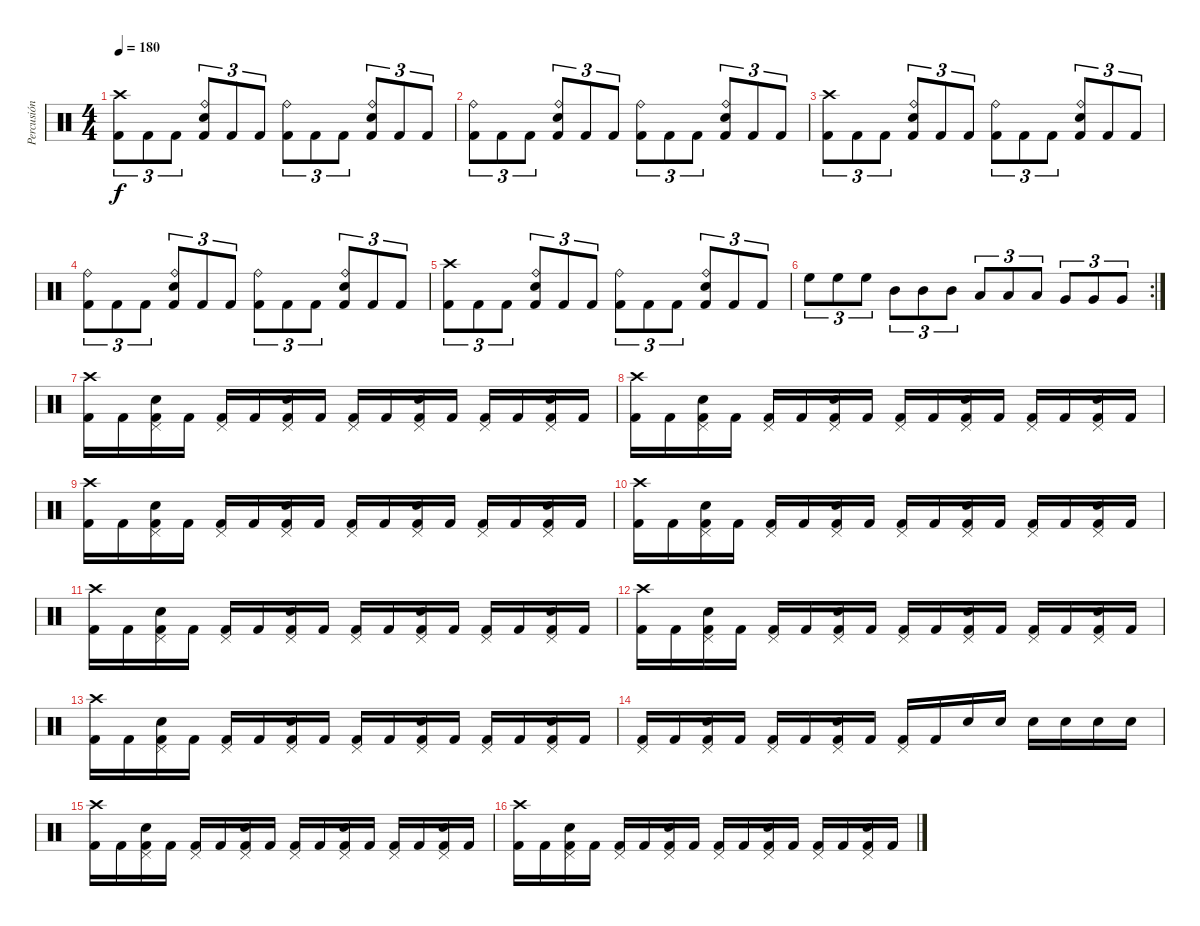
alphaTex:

\track ("Percusión" "Percusión") {instrument percussion}
\staff {score}
\articulation defaults
\ts (4 4)
\tempo 180
\clef neutral
\ks c
("Crash high (hit)" "Kick (hit) 2").8{tu (3 2) dy f} "Kick (hit) 2".8{tu (3 2)} "Kick (hit) 2".8{tu (3 2)} ("Ride (bell)" "Kick (hit) 2" "Electric Snare (hit)").8{tu (3 2)} "Kick (hit) 2".8{tu (3 2)} "Kick (hit) 2".8{tu (3 2)} ("Ride (bell)" "Kick (hit) 2").8{tu (3 2)} "Kick (hit) 2".8{tu (3 2)} "Kick (hit) 2".8{tu (3 2)} ("Ride (bell)" "Kick (hit) 2" "Electric Snare (hit)").8{tu (3 2)} "Kick (hit) 2".8{tu (3 2)} "Kick (hit) 2".8{tu (3 2)} |
("Ride (bell)" "Kick (hit) 2").8{tu (3 2)} "Kick (hit) 2".8{tu (3 2)} "Kick (hit) 2".8{tu (3 2)} ("Ride (bell)" "Kick (hit) 2" "Electric Snare (hit)").8{tu (3 2)} "Kick (hit) 2".8{tu (3 2)} "Kick (hit) 2".8{tu (3 2)} ("Ride (bell)" "Kick (hit) 2").8{tu (3 2)} "Kick (hit) 2".8{tu (3 2)} "Kick (hit) 2".8{tu (3 2)} ("Ride (bell)" "Kick (hit) 2" "Electric Snare (hit)").8{tu (3 2)} "Kick (hit) 2".8{tu (3 2)} "Kick (hit) 2".8{tu (3 2)} |
("Crash high (hit)" "Kick (hit) 2").8{tu (3 2)} "Kick (hit) 2".8{tu (3 2)} "Kick (hit) 2".8{tu (3 2)} ("Ride (bell)" "Kick (hit) 2" "Electric Snare (hit)").8{tu (3 2)} "Kick (hit) 2".8{tu (3 2)} "Kick (hit) 2".8{tu (3 2)} ("Ride (bell)" "Kick (hit) 2").8{tu (3 2)} "Kick (hit) 2".8{tu (3 2)} "Kick (hit) 2".8{tu (3 2)} ("Ride (bell)" "Kick (hit) 2" "Electric Snare (hit)").8{tu (3 2)} "Kick (hit) 2".8{tu (3 2)} "Kick (hit) 2".8{tu (3 2)} |
("Ride (bell)" "Kick (hit) 2").8{tu (3 2)} "Kick (hit) 2".8{tu (3 2)} "Kick (hit) 2".8{tu (3 2)} ("Ride (bell)" "Kick (hit) 2" "Electric Snare (hit)").8{tu (3 2)} "Kick (hit) 2".8{tu (3 2)} "Kick (hit) 2".8{tu (3 2)} ("Ride (bell)" "Kick (hit) 2").8{tu (3 2)} "Kick (hit) 2".8{tu (3 2)} "Kick (hit) 2".8{tu (3 2)} ("Ride (bell)" "Kick (hit) 2" "Electric Snare (hit)").8{tu (3 2)} "Kick (hit) 2".8{tu (3 2)} "Kick (hit) 2".8{tu (3 2)} |
("Crash high (hit)" "Kick (hit) 2").8{tu (3 2)} "Kick (hit) 2".8{tu (3 2)} "Kick (hit) 2".8{tu (3 2)} ("Ride (bell)" "Kick (hit) 2" "Electric Snare (hit)").8{tu (3 2)} "Kick (hit) 2".8{tu (3 2)} "Kick (hit) 2".8{tu (3 2)} ("Ride (bell)" "Kick (hit) 2").8{tu (3 2)} "Kick (hit) 2".8{tu (3 2)} "Kick (hit) 2".8{tu (3 2)} ("Ride (bell)" "Kick (hit) 2" "Electric Snare (hit)").8{tu (3 2)} "Kick (hit) 2".8{tu (3 2)} "Kick (hit) 2".8{tu (3 2)} |
\rc 2 "High Floor Tom (hit)".8{tu (3 2)} "High Floor Tom (hit)".8{tu (3 2)} "High Floor Tom (hit)".8{tu (3 2)} "Mid Tom (hit)".8{tu (3 2)} "Mid Tom (hit)".8{tu (3 2)} "Mid Tom (hit)".8{tu (3 2)} "Low Tom (hit)".8{tu (3 2)} "Low Tom (hit)".8{tu (3 2)} "Low Tom (hit)".8{tu (3 2)} "Very Low Tom (hit)".8{tu (3 2)} "Very Low Tom (hit)".8{tu (3 2)} "Very Low Tom (hit)".8{tu (3 2)}
|
("Crash high (hit)" "Kick (hit) 2").16 "Kick (hit) 2".16 ("Pedal Hi-Hat (hit)" "Kick (hit) 2" "Electric Snare (hit)").16 "Kick (hit) 2".16 ("Pedal Hi-Hat (hit)" "Kick (hit) 2").16 "Kick (hit) 2".16 ("Pedal Hi-Hat (hit)" "Kick (hit) 2" "Electric Snare (hit)").16 "Kick (hit) 2".16 ("Pedal Hi-Hat (hit)" "Kick (hit) 2").16 "Kick (hit) 2".16 ("Pedal Hi-Hat (hit)" "Kick (hit) 2" "Electric Snare (hit)").16 "Kick (hit) 2".16 ("Pedal Hi-Hat (hit)" "Kick (hit) 2").16 "Kick (hit) 2".16 ("Pedal Hi-Hat (hit)" "Kick (hit) 2" "Electric Snare (hit)").16 "Kick (hit) 2".16 |
("Crash high (hit)" "Kick (hit) 2").16 "Kick (hit) 2".16 ("Pedal Hi-Hat (hit)" "Kick (hit) 2" "Electric Snare (hit)").16 "Kick (hit) 2".16 ("Pedal Hi-Hat (hit)" "Kick (hit) 2").16 "Kick (hit) 2".16 ("Pedal Hi-Hat (hit)" "Kick (hit) 2" "Electric Snare (hit)").16 "Kick (hit) 2".16 ("Pedal Hi-Hat (hit)" "Kick (hit) 2").16 "Kick (hit) 2".16 ("Pedal Hi-Hat (hit)" "Kick (hit) 2" "Electric Snare (hit)").16 "Kick (hit) 2".16 ("Pedal Hi-Hat (hit)" "Kick (hit) 2").16 "Kick (hit) 2".16 ("Pedal Hi-Hat (hit)" "Kick (hit) 2" "Electric Snare (hit)").16 "Kick (hit) 2".16 |
("Crash high (hit)" "Kick (hit) 2").16 "Kick (hit) 2".16 ("Pedal Hi-Hat (hit)" "Kick (hit) 2" "Electric Snare (hit)").16 "Kick (hit) 2".16 ("Pedal Hi-Hat (hit)" "Kick (hit) 2").16 "Kick (hit) 2".16 ("Pedal Hi-Hat (hit)" "Kick (hit) 2" "Electric Snare (hit)").16 "Kick (hit) 2".16 ("Pedal Hi-Hat (hit)" "Kick (hit) 2").16 "Kick (hit) 2".16 ("Pedal Hi-Hat (hit)" "Kick (hit) 2" "Electric Snare (hit)").16 "Kick (hit) 2".16 ("Pedal Hi-Hat (hit)" "Kick (hit) 2").16 "Kick (hit) 2".16 ("Pedal Hi-Hat (hit)" "Kick (hit) 2" "Electric Snare (hit)").16 "Kick (hit) 2".16 |
("Crash high (hit)" "Kick (hit) 2").16 "Kick (hit) 2".16 ("Pedal Hi-Hat (hit)" "Kick (hit) 2" "Electric Snare (hit)").16 "Kick (hit) 2".16 ("Pedal Hi-Hat (hit)" "Kick (hit) 2").16 "Kick (hit) 2".16 ("Pedal Hi-Hat (hit)" "Kick (hit) 2" "Electric Snare (hit)").16 "Kick (hit) 2".16 ("Pedal Hi-Hat (hit)" "Kick (hit) 2").16 "Kick (hit) 2".16 ("Pedal Hi-Hat (hit)" "Kick (hit) 2" "Electric Snare (hit)").16 "Kick (hit) 2".16 ("Pedal Hi-Hat (hit)" "Kick (hit) 2").16 "Kick (hit) 2".16 ("Pedal Hi-Hat (hit)" "Kick (hit) 2" "Electric Snare (hit)").16 "Kick (hit) 2".16 |
("Crash high (hit)" "Kick (hit) 2").16 "Kick (hit) 2".16 ("Pedal Hi-Hat (hit)" "Kick (hit) 2" "Electric Snare (hit)").16 "Kick (hit) 2".16 ("Pedal Hi-Hat (hit)" "Kick (hit) 2").16 "Kick (hit) 2".16 ("Pedal Hi-Hat (hit)" "Kick (hit) 2" "Electric Snare (hit)").16 "Kick (hit) 2".16 ("Pedal Hi-Hat (hit)" "Kick (hit) 2").16 "Kick (hit) 2".16 ("Pedal Hi-Hat (hit)" "Kick (hit) 2" "Electric Snare (hit)").16 "Kick (hit) 2".16 ("Pedal Hi-Hat (hit)" "Kick (hit) 2").16 "Kick (hit) 2".16 ("Pedal Hi-Hat (hit)" "Kick (hit) 2" "Electric Snare (hit)").16 "Kick (hit) 2".16 |
("Crash high (hit)" "Kick (hit) 2").16 "Kick (hit) 2".16 ("Pedal Hi-Hat (hit)" "Kick (hit) 2" "Electric Snare (hit)").16 "Kick (hit) 2".16 ("Pedal Hi-Hat (hit)" "Kick (hit) 2").16 "Kick (hit) 2".16 ("Pedal Hi-Hat (hit)" "Kick (hit) 2" "Electric Snare (hit)").16 "Kick (hit) 2".16 ("Pedal Hi-Hat (hit)" "Kick (hit) 2").16 "Kick (hit) 2".16 ("Pedal Hi-Hat (hit)" "Kick (hit) 2" "Electric Snare (hit)").16 "Kick (hit) 2".16 ("Pedal Hi-Hat (hit)" "Kick (hit) 2").16 "Kick (hit) 2".16 ("Pedal Hi-Hat (hit)" "Kick (hit) 2" "Electric Snare (hit)").16 "Kick (hit) 2".16 |
("Crash high (hit)" "Kick (hit) 2").16 "Kick (hit) 2".16 ("Pedal Hi-Hat (hit)" "Kick (hit) 2" "Electric Snare (hit)").16 "Kick (hit) 2".16 ("Pedal Hi-Hat (hit)" "Kick (hit) 2").16 "Kick (hit) 2".16 ("Pedal Hi-Hat (hit)" "Kick (hit) 2" "Electric Snare (hit)").16 "Kick (hit) 2".16 ("Pedal Hi-Hat (hit)" "Kick (hit) 2").16 "Kick (hit) 2".16 ("Pedal Hi-Hat (hit)" "Kick (hit) 2" "Electric Snare (hit)").16 "Kick (hit) 2".16 ("Pedal Hi-Hat (hit)" "Kick (hit) 2").16 "Kick (hit) 2".16 ("Pedal Hi-Hat (hit)" "Kick (hit) 2" "Electric Snare (hit)").16 "Kick (hit) 2".16 |
("Pedal Hi-Hat (hit)" "Kick (hit) 2").16 "Kick (hit) 2".16 ("Pedal Hi-Hat (hit)" "Kick (hit) 2" "Electric Snare (hit)").16 "Kick (hit) 2".16 ("Pedal Hi-Hat (hit)" "Kick (hit) 2").16 "Kick (hit) 2".16 ("Pedal Hi-Hat (hit)" "Kick (hit) 2" "Electric Snare (hit)").16 "Kick (hit) 2".16 ("Pedal Hi-Hat (hit)" "Kick (hit) 2").16 "Kick (hit) 2".16 "Electric Snare (hit)".16 "Electric Snare (hit)".16 "Electric Snare (hit)".16 "Electric Snare (hit)".16 "Electric Snare (hit)".16 "Electric Snare (hit)".16 |
("Crash high (hit)" "Kick (hit) 2").16 "Kick (hit) 2".16 ("Pedal Hi-Hat (hit)" "Kick (hit) 2" "Electric Snare (hit)").16 "Kick (hit) 2".16 ("Pedal Hi-Hat (hit)" "Kick (hit) 2").16 "Kick (hit) 2".16 ("Pedal Hi-Hat (hit)" "Kick (hit) 2" "Electric Snare (hit)").16 "Kick (hit) 2".16 ("Pedal Hi-Hat (hit)" "Kick (hit) 2").16 "Kick (hit) 2".16 ("Pedal Hi-Hat (hit)" "Kick (hit) 2" "Electric Snare (hit)").16 "Kick (hit) 2".16 ("Pedal Hi-Hat (hit)" "Kick (hit) 2").16 "Kick (hit) 2".16 ("Pedal Hi-Hat (hit)" "Kick (hit) 2" "Electric Snare (hit)").16 "Kick (hit) 2".16 |
("Crash high (hit)" "Kick (hit) 2").16 "Kick (hit) 2".16 ("Pedal Hi-Hat (hit)" "Kick (hit) 2" "Electric Snare (hit)").16 "Kick (hit) 2".16 ("Pedal Hi-Hat (hit)" "Kick (hit) 2").16 "Kick (hit) 2".16 ("Pedal Hi-Hat (hit)" "Kick (hit) 2" "Electric Snare (hit)").16 "Kick (hit) 2".16 ("Pedal Hi-Hat (hit)" "Kick (hit) 2").16 "Kick (hit) 2".16 ("Pedal Hi-Hat (hit)" "Kick (hit) 2" "Electric Snare (hit)").16 "Kick (hit) 2".16 ("Pedal Hi-Hat (hit)" "Kick (hit) 2").16 "Kick (hit) 2".16 ("Pedal Hi-Hat (hit)" "Kick (hit) 2" "Electric Snare (hit)").16 "Kick (hit) 2".16
